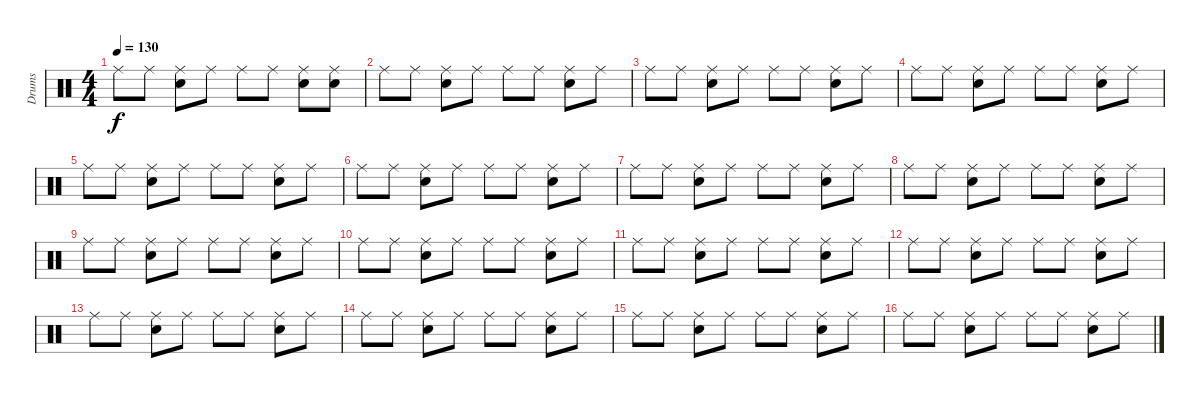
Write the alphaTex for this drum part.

\track ("Drums" "Drums") {instrument percussion}
\staff {score}
\articulation defaults
\ts (4 4)
\tempo 130
\clef neutral
\ks c "Ride (middle)".8{dy f} "Ride (middle)".8
("Ride (middle)" "Snare (hit) 2").8 "Ride (middle)".8 "Ride (middle)".8 "Ride (middle)".8 ("Ride (middle)" "Snare (hit) 2").8 ("Ride (middle)" "Snare (hit) 2").8 |
"Ride (middle)".8 "Ride (middle)".8 ("Ride (middle)" "Snare (hit) 2").8 "Ride (middle)".8 "Ride (middle)".8 "Ride (middle)".8 ("Ride (middle)" "Snare (hit) 2").8 "Ride (middle)".8 |
"Ride (middle)".8 "Ride (middle)".8 ("Ride (middle)" "Snare (hit) 2").8 "Ride (middle)".8 "Ride (middle)".8 "Ride (middle)".8 ("Ride (middle)" "Snare (hit) 2").8 "Ride (middle)".8 |
"Ride (middle)".8 "Ride (middle)".8 ("Ride (middle)" "Snare (hit) 2").8 "Ride (middle)".8 "Ride (middle)".8 "Ride (middle)".8 ("Ride (middle)" "Snare (hit) 2").8 "Ride (middle)".8 |
"Ride (middle)".8 "Ride (middle)".8 ("Ride (middle)" "Snare (hit) 2").8 "Ride (middle)".8 "Ride (middle)".8 "Ride (middle)".8 ("Ride (middle)" "Snare (hit) 2").8 "Ride (middle)".8 |
"Ride (middle)".8 "Ride (middle)".8 ("Ride (middle)" "Snare (hit) 2").8 "Ride (middle)".8 "Ride (middle)".8 "Ride (middle)".8 ("Ride (middle)" "Snare (hit) 2").8 "Ride (middle)".8 |
"Ride (middle)".8 "Ride (middle)".8 ("Ride (middle)" "Snare (hit) 2").8 "Ride (middle)".8 "Ride (middle)".8 "Ride (middle)".8 ("Ride (middle)" "Snare (hit) 2").8 "Ride (middle)".8 |
"Ride (middle)".8 "Ride (middle)".8 ("Ride (middle)" "Snare (hit) 2").8 "Ride (middle)".8 "Ride (middle)".8 "Ride (middle)".8 ("Ride (middle)" "Snare (hit) 2").8 "Ride (middle)".8 |
"Ride (middle)".8 "Ride (middle)".8 ("Ride (middle)" "Snare (hit) 2").8 "Ride (middle)".8 "Ride (middle)".8 "Ride (middle)".8 ("Ride (middle)" "Snare (hit) 2").8 "Ride (middle)".8 |
"Ride (middle)".8 "Ride (middle)".8 ("Ride (middle)" "Snare (hit) 2").8 "Ride (middle)".8 "Ride (middle)".8 "Ride (middle)".8 ("Ride (middle)" "Snare (hit) 2").8 "Ride (middle)".8 |
"Ride (middle)".8 "Ride (middle)".8 ("Ride (middle)" "Snare (hit) 2").8 "Ride (middle)".8 "Ride (middle)".8 "Ride (middle)".8 ("Ride (middle)" "Snare (hit) 2").8 "Ride (middle)".8 |
"Ride (middle)".8 "Ride (middle)".8 ("Ride (middle)" "Snare (hit) 2").8 "Ride (middle)".8 "Ride (middle)".8 "Ride (middle)".8 ("Ride (middle)" "Snare (hit) 2").8 "Ride (middle)".8 |
"Ride (middle)".8 "Ride (middle)".8 ("Ride (middle)" "Snare (hit) 2").8 "Ride (middle)".8 "Ride (middle)".8 "Ride (middle)".8 ("Ride (middle)" "Snare (hit) 2").8 "Ride (middle)".8 |
"Ride (middle)".8 "Ride (middle)".8 ("Ride (middle)" "Snare (hit) 2").8 "Ride (middle)".8 "Ride (middle)".8 "Ride (middle)".8 ("Ride (middle)" "Snare (hit) 2").8 "Ride (middle)".8 |
"Ride (middle)".8 "Ride (middle)".8 ("Ride (middle)" "Snare (hit) 2").8 "Ride (middle)".8 "Ride (middle)".8 "Ride (middle)".8 ("Ride (middle)" "Snare (hit) 2").8 "Ride (middle)".8 |
"Ride (middle)".8 "Ride (middle)".8 ("Ride (middle)" "Snare (hit) 2").8 "Ride (middle)".8 "Ride (middle)".8 "Ride (middle)".8 ("Ride (middle)" "Snare (hit) 2").8 "Ride (middle)".8
